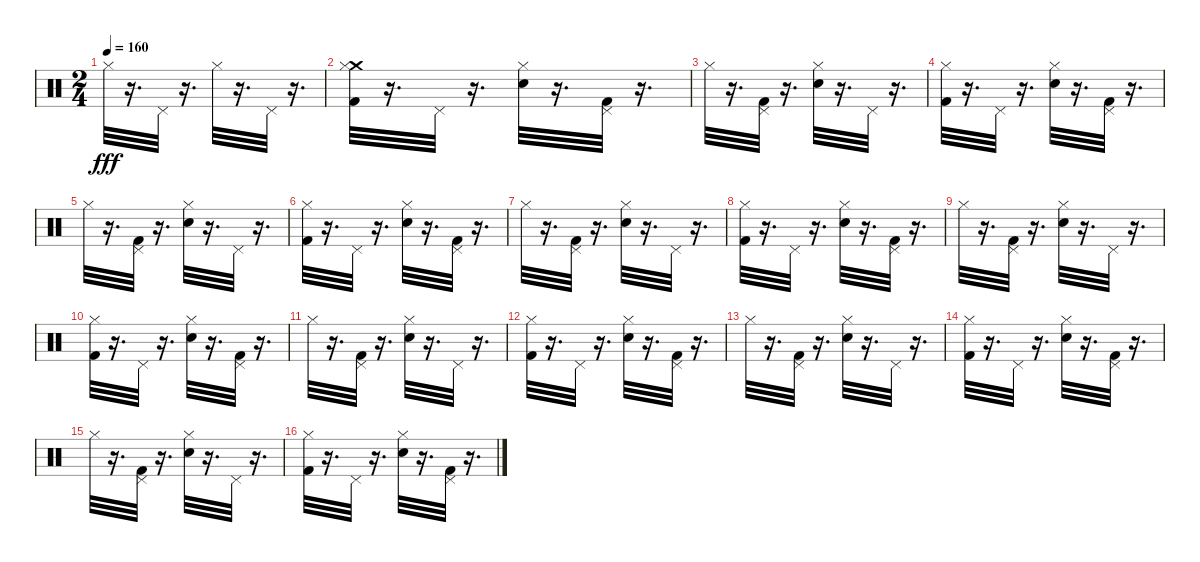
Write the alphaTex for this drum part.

\track "" {instrument percussion}
\staff {score}
\articulation defaults
\ts (2 4)
\tempo 160
\clef neutral
\ks c "Hi-Hat (closed)".32{dy fff}
r.16{d} "Pedal Hi-Hat (hit)".32 r.16{d} "Hi-Hat (closed)".32 r.16{d} "Pedal Hi-Hat (hit)".32 r.16{d} |
("Crash medium (hit)" "Hi-Hat (closed)" "Kick (hit) 2").32 r.16{d} "Pedal Hi-Hat (hit)".32 r.16{d} ("Hi-Hat (closed)" "Snare (hit) 2").32 r.16{d} ("Pedal Hi-Hat (hit)" "Kick (hit) 2").32 r.16{d} |
"Hi-Hat (closed)".32 r.16{d} ("Pedal Hi-Hat (hit)" "Kick (hit) 2").32 r.16{d} ("Hi-Hat (closed)" "Snare (hit) 2").32 r.16{d} "Pedal Hi-Hat (hit)".32 r.16{d} |
("Hi-Hat (closed)" "Kick (hit) 2").32 r.16{d} "Pedal Hi-Hat (hit)".32 r.16{d} ("Hi-Hat (closed)" "Snare (hit) 2").32 r.16{d} ("Pedal Hi-Hat (hit)" "Kick (hit) 2").32 r.16{d} |
"Hi-Hat (closed)".32 r.16{d} ("Pedal Hi-Hat (hit)" "Kick (hit) 2").32 r.16{d} ("Hi-Hat (closed)" "Snare (hit) 2").32 r.16{d} "Pedal Hi-Hat (hit)".32 r.16{d} |
("Hi-Hat (closed)" "Kick (hit) 2").32 r.16{d} "Pedal Hi-Hat (hit)".32 r.16{d} ("Hi-Hat (closed)" "Snare (hit) 2").32 r.16{d} ("Pedal Hi-Hat (hit)" "Kick (hit) 2").32 r.16{d} |
"Hi-Hat (closed)".32 r.16{d} ("Pedal Hi-Hat (hit)" "Kick (hit) 2").32 r.16{d} ("Hi-Hat (closed)" "Snare (hit) 2").32 r.16{d} "Pedal Hi-Hat (hit)".32 r.16{d} |
("Hi-Hat (closed)" "Kick (hit) 2").32 r.16{d} "Pedal Hi-Hat (hit)".32 r.16{d} ("Hi-Hat (closed)" "Snare (hit) 2").32 r.16{d} ("Pedal Hi-Hat (hit)" "Kick (hit) 2").32 r.16{d} |
"Hi-Hat (closed)".32 r.16{d} ("Pedal Hi-Hat (hit)" "Kick (hit) 2").32 r.16{d} ("Hi-Hat (closed)" "Snare (hit) 2").32 r.16{d} "Pedal Hi-Hat (hit)".32 r.16{d} |
("Hi-Hat (closed)" "Kick (hit) 2").32 r.16{d} "Pedal Hi-Hat (hit)".32 r.16{d} ("Hi-Hat (closed)" "Snare (hit) 2").32 r.16{d} ("Pedal Hi-Hat (hit)" "Kick (hit) 2").32 r.16{d} |
"Hi-Hat (closed)".32 r.16{d} ("Pedal Hi-Hat (hit)" "Kick (hit) 2").32 r.16{d} ("Hi-Hat (closed)" "Snare (hit) 2").32 r.16{d} "Pedal Hi-Hat (hit)".32 r.16{d} |
("Hi-Hat (closed)" "Kick (hit) 2").32 r.16{d} "Pedal Hi-Hat (hit)".32 r.16{d} ("Hi-Hat (closed)" "Snare (hit) 2").32 r.16{d} ("Pedal Hi-Hat (hit)" "Kick (hit) 2").32 r.16{d} |
"Hi-Hat (closed)".32 r.16{d} ("Pedal Hi-Hat (hit)" "Kick (hit) 2").32 r.16{d} ("Hi-Hat (closed)" "Snare (hit) 2").32 r.16{d} "Pedal Hi-Hat (hit)".32 r.16{d} |
("Hi-Hat (closed)" "Kick (hit) 2").32 r.16{d} "Pedal Hi-Hat (hit)".32 r.16{d} ("Hi-Hat (closed)" "Snare (hit) 2").32 r.16{d} ("Pedal Hi-Hat (hit)" "Kick (hit) 2").32 r.16{d} |
"Hi-Hat (closed)".32 r.16{d} ("Pedal Hi-Hat (hit)" "Kick (hit) 2").32 r.16{d} ("Hi-Hat (closed)" "Snare (hit) 2").32 r.16{d} "Pedal Hi-Hat (hit)".32 r.16{d} |
("Hi-Hat (closed)" "Kick (hit) 2").32 r.16{d} "Pedal Hi-Hat (hit)".32 r.16{d} ("Hi-Hat (closed)" "Snare (hit) 2").32 r.16{d} ("Pedal Hi-Hat (hit)" "Kick (hit) 2").32 r.16{d}
